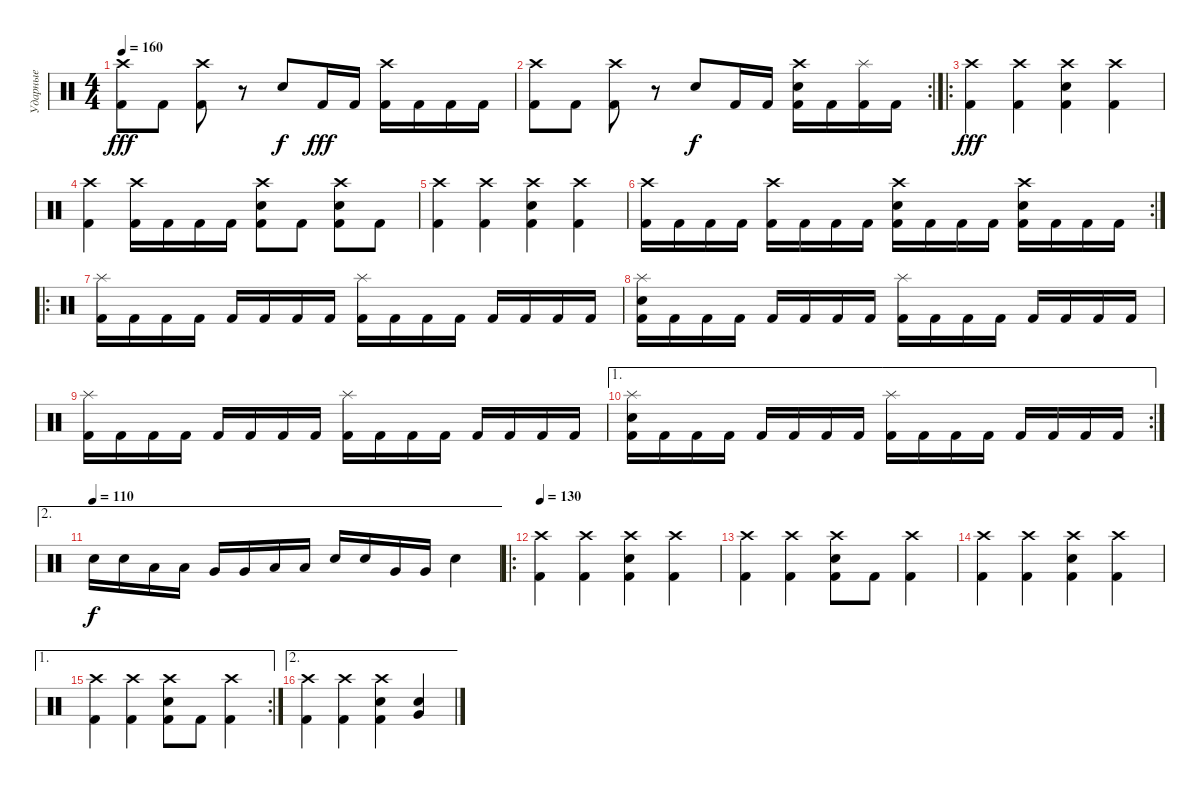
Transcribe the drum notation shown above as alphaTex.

\track ("Ударные" "Ударные") {instrument percussion}
\staff {score}
\articulation defaults
\ts (4 4)
\tempo 160
\clef neutral
\ks c
("Crash high (hit)" "Kick (hit) 2").8{dy fff} "Kick (hit) 2".8 ("Crash high (hit)" "Kick (hit) 2").8 r.8 "Snare (hit) 2".8{dy f} "Kick (hit) 2".16{dy fff} "Kick (hit) 2".16 ("Crash high (hit)" "Kick (hit) 2").16 "Kick (hit) 2".16 "Kick (hit) 2".16 "Kick (hit) 2".16 |
\rc 2
("Crash high (hit)" "Kick (hit) 2").8 "Kick (hit) 2".8 ("Crash high (hit)" "Kick (hit) 2").8 r.8 "Snare (hit) 2".8{dy f} "Kick (hit) 2".16 "Kick (hit) 2".16 ("Crash high (hit)" "Snare (hit) 2" "Kick (hit) 2").16 "Kick (hit) 2".16 ("Splash (hit)" "Kick (hit) 2").16 "Kick (hit) 2".16 |
\ro
("Crash high (hit)" "Kick (hit) 2").4{dy fff} ("Crash high (hit)" "Kick (hit) 2").4 ("Crash high (hit)" "Snare (hit) 2" "Kick (hit) 2").4 ("Crash high (hit)" "Kick (hit) 2").4 |
("Crash high (hit)" "Kick (hit) 2").4 ("Crash high (hit)" "Kick (hit) 2").16 "Kick (hit) 2".16 "Kick (hit) 2".16 "Kick (hit) 2".16 ("Crash high (hit)" "Snare (hit) 2" "Kick (hit) 2").8 "Kick (hit) 2".8 ("Crash high (hit)" "Snare (hit) 2" "Kick (hit) 2").8 "Kick (hit) 2".8 |
("Crash high (hit)" "Kick (hit) 2").4 ("Crash high (hit)" "Kick (hit) 2").4 ("Crash high (hit)" "Snare (hit) 2" "Kick (hit) 2").4 ("Crash high (hit)" "Kick (hit) 2").4 |
\rc 2
("Crash high (hit)" "Kick (hit) 2").16 "Kick (hit) 2".16 "Kick (hit) 2".16 "Kick (hit) 2".16 ("Crash high (hit)" "Kick (hit) 2").16 "Kick (hit) 2".16 "Kick (hit) 2".16 "Kick (hit) 2".16 ("Crash high (hit)" "Snare (hit) 2" "Kick (hit) 2").16 "Kick (hit) 2".16 "Kick (hit) 2".16 "Kick (hit) 2".16 ("Crash high (hit)" "Snare (hit) 2" "Kick (hit) 2").16 "Kick (hit) 2".16 "Kick (hit) 2".16 "Kick (hit) 2".16 |
\ro
("Splash (hit)" "Kick (hit) 2").16 "Kick (hit) 2".16 "Kick (hit) 2".16 "Kick (hit) 2".16 "Kick (hit) 2".16 "Kick (hit) 2".16 "Kick (hit) 2".16 "Kick (hit) 2".16 ("Splash (hit)" "Kick (hit) 2").16 "Kick (hit) 2".16 "Kick (hit) 2".16 "Kick (hit) 2".16 "Kick (hit) 2".16 "Kick (hit) 2".16 "Kick (hit) 2".16 "Kick (hit) 2".16 |
("Splash (hit)" "Snare (hit) 2" "Kick (hit) 2").16 "Kick (hit) 2".16 "Kick (hit) 2".16 "Kick (hit) 2".16 "Kick (hit) 2".16 "Kick (hit) 2".16 "Kick (hit) 2".16 "Kick (hit) 2".16 ("Splash (hit)" "Kick (hit) 2").16 "Kick (hit) 2".16 "Kick (hit) 2".16 "Kick (hit) 2".16 "Kick (hit) 2".16 "Kick (hit) 2".16 "Kick (hit) 2".16 "Kick (hit) 2".16 |
("Splash (hit)" "Kick (hit) 2").16 "Kick (hit) 2".16 "Kick (hit) 2".16 "Kick (hit) 2".16 "Kick (hit) 2".16 "Kick (hit) 2".16 "Kick (hit) 2".16 "Kick (hit) 2".16 ("Splash (hit)" "Kick (hit) 2").16 "Kick (hit) 2".16 "Kick (hit) 2".16 "Kick (hit) 2".16 "Kick (hit) 2".16 "Kick (hit) 2".16 "Kick (hit) 2".16 "Kick (hit) 2".16 |
\ae 1
\rc 2
("Splash (hit)" "Snare (hit) 2" "Kick (hit) 2").16 "Kick (hit) 2".16 "Kick (hit) 2".16 "Kick (hit) 2".16 "Kick (hit) 2".16 "Kick (hit) 2".16 "Kick (hit) 2".16 "Kick (hit) 2".16 ("Splash (hit)" "Kick (hit) 2").16 "Kick (hit) 2".16 "Kick (hit) 2".16 "Kick (hit) 2".16 "Kick (hit) 2".16 "Kick (hit) 2".16 "Kick (hit) 2".16 "Kick (hit) 2".16 |
\ae 2
\tempo (110)
"Snare (hit) 2".16{dy f} "Snare (hit) 2".16 "Low Tom (hit)".16 "Low Tom (hit)".16 "Very Low Tom (hit)".16 "Very Low Tom (hit)".16 "Low Floor Tom (hit)".16 "Low Floor Tom (hit)".16 "Snare (hit) 2".16 "Snare (hit) 2".16 "Very Low Tom (hit)".16 "Very Low Tom (hit)".16 "Snare (hit) 2".4 |
\ro
\tempo 130
("Crash high (hit)" "Kick (hit) 2").4 ("Crash high (hit)" "Kick (hit) 2").4 ("Crash high (hit)" "Snare (hit) 2" "Kick (hit) 2").4 ("Crash high (hit)" "Kick (hit) 2").4 |
("Crash high (hit)" "Kick (hit) 2").4 ("Crash high (hit)" "Kick (hit) 2").4 ("Crash high (hit)" "Snare (hit) 2" "Kick (hit) 2").8 "Kick (hit) 2".8 ("Crash high (hit)" "Kick (hit) 2").4 |
("Crash high (hit)" "Kick (hit) 2").4 ("Crash high (hit)" "Kick (hit) 2").4 ("Crash high (hit)" "Snare (hit) 2" "Kick (hit) 2").4 ("Crash high (hit)" "Kick (hit) 2").4 |
\ae 1
\rc 2
("Crash high (hit)" "Kick (hit) 2").4 ("Crash high (hit)" "Kick (hit) 2").4 ("Crash high (hit)" "Snare (hit) 2" "Kick (hit) 2").8 "Kick (hit) 2".8 ("Crash high (hit)" "Kick (hit) 2").4 |
\ae 2
("Crash high (hit)" "Kick (hit) 2").4 ("Crash high (hit)" "Kick (hit) 2").4 ("Crash high (hit)" "Snare (hit) 2" "Kick (hit) 2").4 ("Very Low Tom (hit)" "Snare (hit) 2").4
